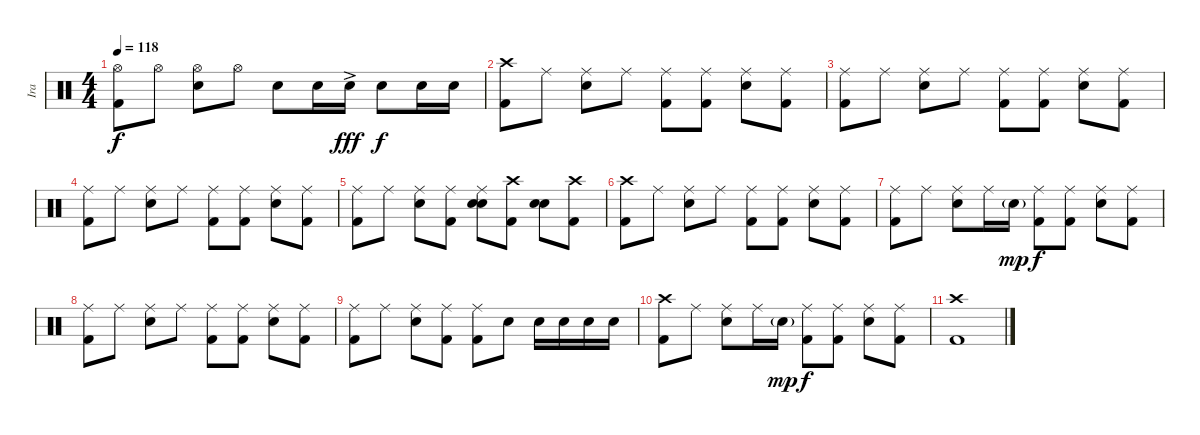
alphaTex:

\track ("Ira" "Ira") {instrument percussion}
\staff {score}
\articulation defaults
\ts (4 4)
\tempo 118
\clef neutral
\ks c
("Hi-Hat (open)" "Kick (hit) 2").8{dy f} "Hi-Hat (open)".8 ("Hi-Hat (open)" "Electric Snare (hit)").8 "Hi-Hat (open)".8 "Electric Snare (hit)".8 "Electric Snare (hit)".16 "Electric Snare (hit)"{ac}.16{dy fff} "Electric Snare (hit)".8{dy f} "Electric Snare (hit)".16 "Electric Snare (hit)".16 |
("Crash high (hit)" "Kick (hit) 2").8 "Ride (middle)".8 ("Ride (middle)" "Electric Snare (hit)").8 "Ride (middle)".8 ("Ride (middle)" "Kick (hit) 2").8 ("Ride (middle)" "Kick (hit) 2").8 ("Ride (middle)" "Electric Snare (hit)").8 ("Ride (middle)" "Kick (hit) 2").8 |
("Ride (middle)" "Kick (hit) 2").8 "Ride (middle)".8 ("Ride (middle)" "Electric Snare (hit)").8 "Ride (middle)".8 ("Ride (middle)" "Kick (hit) 2").8 ("Ride (middle)" "Kick (hit) 2").8 ("Ride (middle)" "Electric Snare (hit)").8 ("Ride (middle)" "Kick (hit) 2").8 |
("Ride (middle)" "Kick (hit) 2").8 "Ride (middle)".8 ("Ride (middle)" "Electric Snare (hit)").8 "Ride (middle)".8 ("Ride (middle)" "Kick (hit) 2").8 ("Ride (middle)" "Kick (hit) 2").8 ("Ride (middle)" "Electric Snare (hit)").8 ("Ride (middle)" "Kick (hit) 2").8 |
("Ride (middle)" "Kick (hit) 2").8 "Ride (middle)".8 ("Ride (middle)" "Electric Snare (hit)").8 ("Ride (middle)" "Kick (hit) 2").8 ("Ride (middle)" "Electric Snare (hit)" "Electric Snare (hit)").8 ("Crash high (hit)" "Kick (hit) 2").8 ("Electric Snare (hit)" "Electric Snare (hit)").8 ("Crash high (hit)" "Kick (hit) 2").8 |
("Crash high (hit)" "Kick (hit) 2").8 "Ride (middle)".8 ("Ride (middle)" "Electric Snare (hit)").8 "Ride (middle)".8 ("Ride (middle)" "Kick (hit) 2").8 ("Ride (middle)" "Kick (hit) 2").8 ("Ride (middle)" "Electric Snare (hit)").8 ("Ride (middle)" "Kick (hit) 2").8 |
("Ride (middle)" "Kick (hit) 2").8 "Ride (middle)".8 ("Ride (middle)" "Electric Snare (hit)").8 "Ride (middle)".16 "Electric Snare (hit)"{g}.16{dy mp} ("Ride (middle)" "Kick (hit) 2").8{dy f} ("Ride (middle)" "Kick (hit) 2").8 ("Ride (middle)" "Electric Snare (hit)").8 ("Ride (middle)" "Kick (hit) 2").8 |
("Ride (middle)" "Kick (hit) 2").8 "Ride (middle)".8 ("Ride (middle)" "Electric Snare (hit)").8 "Ride (middle)".8 ("Ride (middle)" "Kick (hit) 2").8 ("Ride (middle)" "Kick (hit) 2").8 ("Ride (middle)" "Electric Snare (hit)").8 ("Ride (middle)" "Kick (hit) 2").8 |
("Ride (middle)" "Kick (hit) 2").8 "Ride (middle)".8 ("Ride (middle)" "Electric Snare (hit)").8 ("Ride (middle)" "Kick (hit) 2").8 ("Ride (middle)" "Kick (hit) 2").8 "Electric Snare (hit)".8 "Electric Snare (hit)".16 "Electric Snare (hit)".16 "Electric Snare (hit)".16 "Electric Snare (hit)".16 |
("Crash high (hit)" "Kick (hit) 2").8 "Ride (middle)".8 ("Ride (middle)" "Electric Snare (hit)").8 "Ride (middle)".16 "Electric Snare (hit)"{g}.16{dy mp} ("Ride (middle)" "Kick (hit) 2").8{dy f} ("Ride (middle)" "Kick (hit) 2").8 ("Ride (middle)" "Electric Snare (hit)").8 ("Ride (middle)" "Kick (hit) 2").8 |
("Crash high (hit)" "Kick (hit) 2").1
